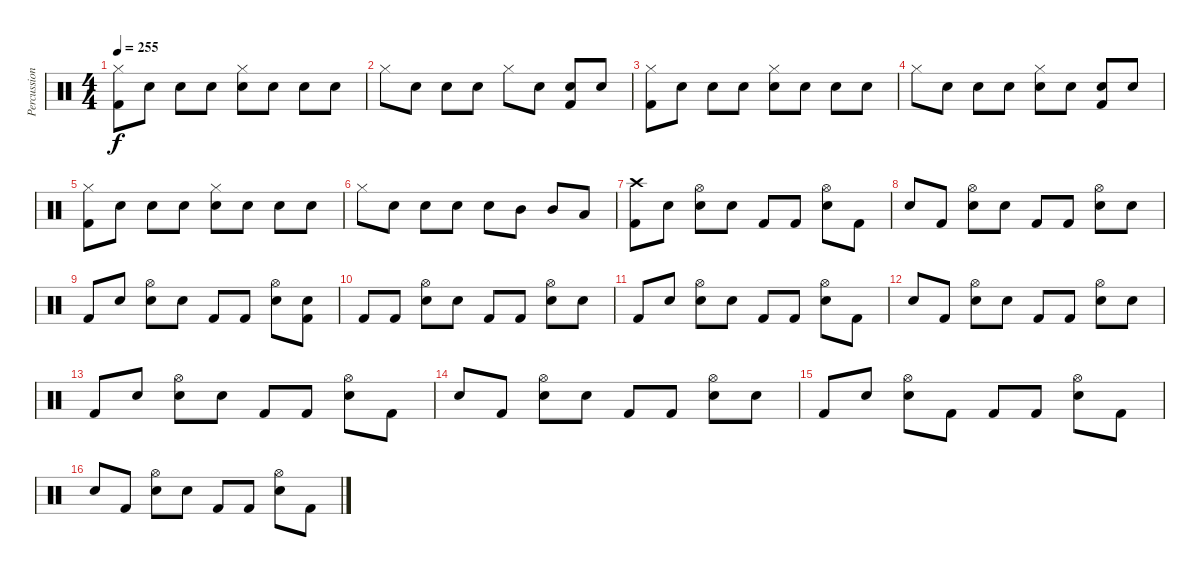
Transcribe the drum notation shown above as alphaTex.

\track ("Percussion" "Percussion") {instrument percussion}
\staff {score}
\articulation defaults
\ts (4 4)
\tempo 255
\clef neutral
\ks c
("Kick (hit) 2" "Hi-Hat (closed)").8{dy f} "Snare (hit)".8 "Snare (hit)".8 "Snare (hit)".8 ("Snare (hit) 2" "Hi-Hat (closed)").8 "Snare (hit)".8 "Snare (hit)".8 "Snare (hit)".8 |
"Hi-Hat (closed)".8 "Snare (hit)".8 "Snare (hit)".8 "Snare (hit)".8 "Hi-Hat (closed)".8 "Snare (hit)".8 ("Kick (hit) 2" "Snare (hit)").8 "Snare (hit)".8 |
("Kick (hit) 2" "Hi-Hat (closed)").8 "Snare (hit)".8 "Snare (hit)".8 "Snare (hit)".8 ("Snare (hit) 2" "Hi-Hat (closed)").8 "Snare (hit)".8 "Snare (hit)".8 "Snare (hit)".8 |
"Hi-Hat (closed)".8 "Snare (hit)".8 "Snare (hit)".8 "Snare (hit)".8 ("Snare (hit) 2" "Hi-Hat (closed)").8 "Snare (hit)".8 ("Kick (hit) 2" "Snare (hit)").8 "Snare (hit)".8 |
("Kick (hit) 2" "Hi-Hat (closed)").8 "Snare (hit)".8 "Snare (hit)".8 "Snare (hit)".8 ("Snare (hit) 2" "Hi-Hat (closed)").8 "Snare (hit)".8 "Snare (hit)".8 "Snare (hit)".8 |
"Hi-Hat (closed)".8 "Snare (hit)".8 "Snare (hit) 2".8 "Snare (hit) 2".8 "Snare (hit) 2".8 "Mid Tom (hit)".8 "Mid Tom (hit)".8 "Low Tom (hit)".8 |
("Kick (hit) 2" "Crash high (hit)").8 "Snare (hit)".8 ("Snare (hit) 2" "Hi-Hat (open)").8 "Snare (hit)".8 "Kick (hit) 2".8 "Kick (hit) 2".8 ("Snare (hit) 2" "Hi-Hat (open)").8 "Kick (hit) 2".8 |
"Snare (hit)".8 "Kick (hit) 2".8 ("Snare (hit) 2" "Hi-Hat (open)").8 "Snare (hit)".8 "Kick (hit) 2".8 "Kick (hit) 2".8 ("Snare (hit) 2" "Hi-Hat (open)").8 "Snare (hit)".8 |
"Kick (hit) 2".8 "Snare (hit)".8 ("Snare (hit) 2" "Hi-Hat (open)").8 "Snare (hit)".8 "Kick (hit) 2".8 "Kick (hit) 2".8 ("Snare (hit) 2" "Hi-Hat (open)").8 ("Kick (hit) 2" "Snare (hit)").8 |
"Kick (hit) 2".8 "Kick (hit) 2".8 ("Snare (hit) 2" "Hi-Hat (open)").8 "Snare (hit)".8 "Kick (hit) 2".8 "Kick (hit) 2".8 ("Snare (hit) 2" "Hi-Hat (open)").8 "Snare (hit)".8 |
"Kick (hit) 2".8 "Snare (hit)".8 ("Snare (hit) 2" "Hi-Hat (open)").8 "Snare (hit)".8 "Kick (hit) 2".8 "Kick (hit) 2".8 ("Snare (hit) 2" "Hi-Hat (open)").8 "Kick (hit) 2".8 |
"Snare (hit)".8 "Kick (hit) 2".8 ("Snare (hit) 2" "Hi-Hat (open)").8 "Snare (hit)".8 "Kick (hit) 2".8 "Kick (hit) 2".8 ("Snare (hit) 2" "Hi-Hat (open)").8 "Snare (hit)".8 |
"Kick (hit) 2".8 "Snare (hit)".8 ("Snare (hit) 2" "Hi-Hat (open)").8 "Snare (hit)".8 "Kick (hit) 2".8 "Kick (hit) 2".8 ("Snare (hit) 2" "Hi-Hat (open)").8 "Kick (hit) 2".8 |
"Snare (hit)".8 "Kick (hit) 2".8 ("Snare (hit) 2" "Hi-Hat (open)").8 "Snare (hit)".8 "Kick (hit) 2".8 "Kick (hit) 2".8 ("Snare (hit) 2" "Hi-Hat (open)").8 "Snare (hit)".8 |
"Kick (hit) 2".8 "Snare (hit)".8 ("Snare (hit) 2" "Hi-Hat (open)").8 "Kick (hit) 2".8 "Kick (hit) 2".8 "Kick (hit) 2".8 ("Snare (hit) 2" "Hi-Hat (open)").8 "Kick (hit) 2".8 |
"Snare (hit)".8 "Kick (hit) 2".8 ("Snare (hit) 2" "Hi-Hat (open)").8 "Snare (hit)".8 "Kick (hit) 2".8 "Kick (hit) 2".8 ("Snare (hit) 2" "Hi-Hat (open)").8 "Kick (hit) 2".8
